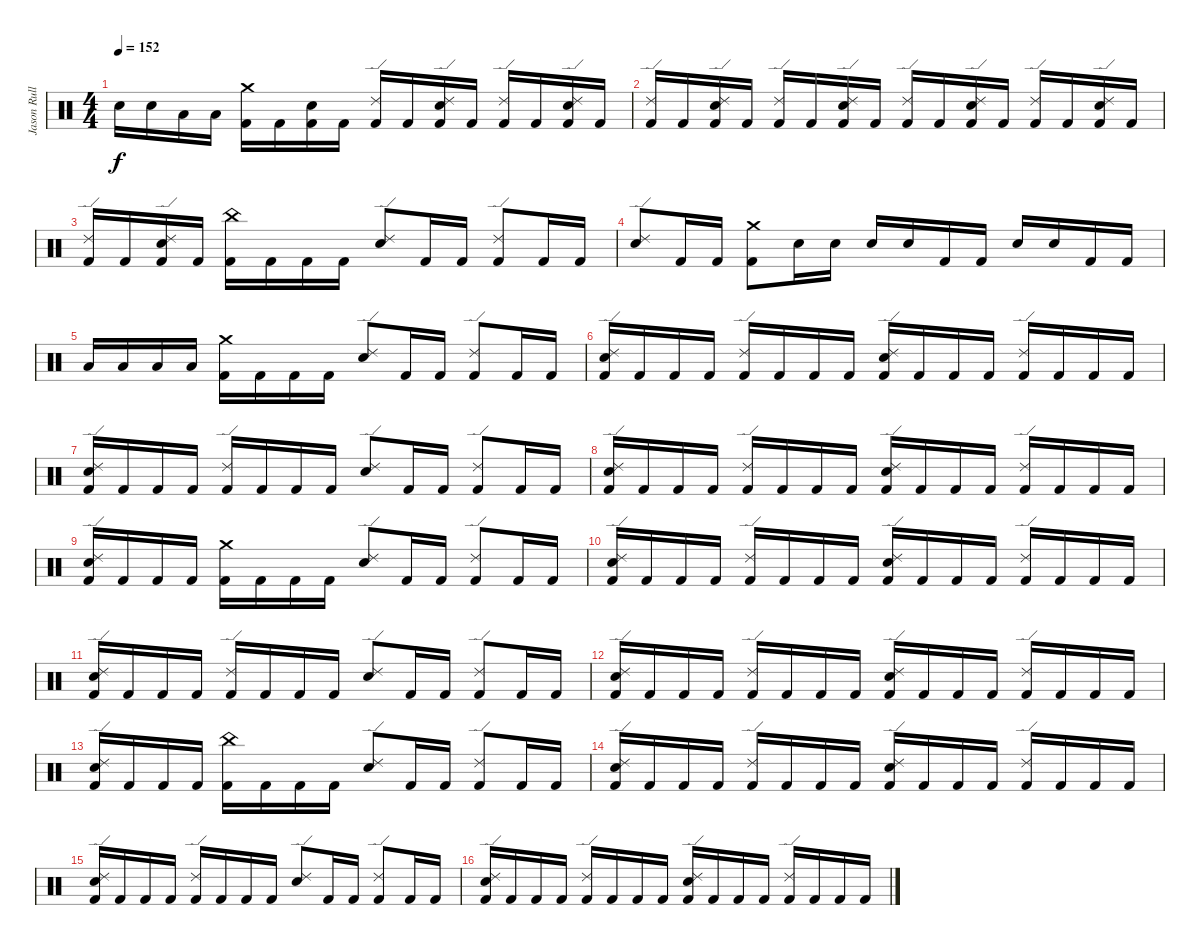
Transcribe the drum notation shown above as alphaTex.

\track ("Jason Rullo" "Jason Rull") {instrument percussion}
\staff {score}
\articulation defaults
\ts (4 4)
\tempo 152
\clef neutral
\ks c "Electric Snare (hit)".16{dy f} "Electric Snare (hit)".16 "Low Tom (hit)".16 "Low Tom (hit)".16
("Crash medium (hit)" "Kick (hit) 2").16 "Kick (hit) 2".16 ("Electric Snare (hit)" "Kick (hit) 2").16 "Kick (hit) 2".16 ("Ride (edge) 2" "Kick (hit) 2").16 "Kick (hit) 2".16 ("Electric Snare (hit)" "Ride (edge) 2" "Kick (hit) 2").16 "Kick (hit) 2".16 ("Ride (edge) 2" "Kick (hit) 2").16 "Kick (hit) 2".16 ("Electric Snare (hit)" "Ride (edge) 2" "Kick (hit) 2").16 "Kick (hit) 2".16 |
("Ride (edge) 2" "Kick (hit) 2").16 "Kick (hit) 2".16 ("Electric Snare (hit)" "Ride (edge) 2" "Kick (hit) 2").16 "Kick (hit) 2".16 ("Ride (edge) 2" "Kick (hit) 2").16 "Kick (hit) 2".16 ("Electric Snare (hit)" "Ride (edge) 2" "Kick (hit) 2").16 "Kick (hit) 2".16 ("Ride (edge) 2" "Kick (hit) 2").16 "Kick (hit) 2".16 ("Electric Snare (hit)" "Ride (edge) 2" "Kick (hit) 2").16 "Kick (hit) 2".16 ("Ride (edge) 2" "Kick (hit) 2").16 "Kick (hit) 2".16 ("Electric Snare (hit)" "Ride (edge) 2" "Kick (hit) 2").16 "Kick (hit) 2".16 |
("Ride (edge) 2" "Kick (hit) 2").16 "Kick (hit) 2".16 ("Electric Snare (hit)" "Ride (edge) 2" "Kick (hit) 2").16 "Kick (hit) 2".16 ("China (hit)" "Kick (hit) 2").16 "Kick (hit) 2".16 "Kick (hit) 2".16 "Kick (hit) 2".16 ("Ride (edge) 2" "Electric Snare (hit)").8 "Kick (hit) 2".16 "Kick (hit) 2".16 ("Ride (edge) 2" "Kick (hit) 2").8 "Kick (hit) 2".16 "Kick (hit) 2".16 |
("Ride (edge) 2" "Electric Snare (hit)").8 "Kick (hit) 2".16 "Kick (hit) 2".16 ("Crash medium (hit)" "Kick (hit) 2").8 "Electric Snare (hit)".16 "Electric Snare (hit)".16 "Electric Snare (hit)".16 "Electric Snare (hit)".16 "Kick (hit) 2".16 "Kick (hit) 2".16 "Electric Snare (hit)".16 "Electric Snare (hit)".16 "Kick (hit) 2".16 "Kick (hit) 2".16 |
"Low Tom (hit)".16 "Low Tom (hit)".16 "Low Floor Tom (hit)".16 "Low Floor Tom (hit)".16 ("Kick (hit) 2" "Crash medium (hit)").16 "Kick (hit) 2".16 "Kick (hit) 2".16 "Kick (hit) 2".16 ("Electric Snare (hit)" "Ride (edge) 2").8 "Kick (hit) 2".16 "Kick (hit) 2".16 ("Kick (hit) 2" "Ride (edge) 2").8 "Kick (hit) 2".16 "Kick (hit) 2".16 |
("Kick (hit) 2" "Electric Snare (hit)" "Ride (edge) 2").16 "Kick (hit) 2".16 "Kick (hit) 2".16 "Kick (hit) 2".16 ("Ride (edge) 2" "Kick (hit) 2").16 "Kick (hit) 2".16 "Kick (hit) 2".16 "Kick (hit) 2".16 ("Electric Snare (hit)" "Ride (edge) 2" "Kick (hit) 2").16 "Kick (hit) 2".16 "Kick (hit) 2".16 "Kick (hit) 2".16 ("Ride (edge) 2" "Kick (hit) 2").16 "Kick (hit) 2".16 "Kick (hit) 2".16 "Kick (hit) 2".16 |
("Electric Snare (hit)" "Ride (edge) 2" "Kick (hit) 2").16 "Kick (hit) 2".16 "Kick (hit) 2".16 "Kick (hit) 2".16 ("Ride (edge) 2" "Kick (hit) 2").16 "Kick (hit) 2".16 "Kick (hit) 2".16 "Kick (hit) 2".16 ("Electric Snare (hit)" "Ride (edge) 2").8 "Kick (hit) 2".16 "Kick (hit) 2".16 ("Kick (hit) 2" "Ride (edge) 2").8 "Kick (hit) 2".16 "Kick (hit) 2".16 |
("Kick (hit) 2" "Electric Snare (hit)" "Ride (edge) 2").16 "Kick (hit) 2".16 "Kick (hit) 2".16 "Kick (hit) 2".16 ("Ride (edge) 2" "Kick (hit) 2").16 "Kick (hit) 2".16 "Kick (hit) 2".16 "Kick (hit) 2".16 ("Electric Snare (hit)" "Ride (edge) 2" "Kick (hit) 2").16 "Kick (hit) 2".16 "Kick (hit) 2".16 "Kick (hit) 2".16 ("Ride (edge) 2" "Kick (hit) 2").16 "Kick (hit) 2".16 "Kick (hit) 2".16 "Kick (hit) 2".16 |
("Electric Snare (hit)" "Ride (edge) 2" "Kick (hit) 2").16 "Kick (hit) 2".16 "Kick (hit) 2".16 "Kick (hit) 2".16 ("Kick (hit) 2" "Crash medium (hit)").16 "Kick (hit) 2".16 "Kick (hit) 2".16 "Kick (hit) 2".16 ("Electric Snare (hit)" "Ride (edge) 2").8 "Kick (hit) 2".16 "Kick (hit) 2".16 ("Kick (hit) 2" "Ride (edge) 2").8 "Kick (hit) 2".16 "Kick (hit) 2".16 |
("Kick (hit) 2" "Electric Snare (hit)" "Ride (edge) 2").16 "Kick (hit) 2".16 "Kick (hit) 2".16 "Kick (hit) 2".16 ("Ride (edge) 2" "Kick (hit) 2").16 "Kick (hit) 2".16 "Kick (hit) 2".16 "Kick (hit) 2".16 ("Electric Snare (hit)" "Ride (edge) 2" "Kick (hit) 2").16 "Kick (hit) 2".16 "Kick (hit) 2".16 "Kick (hit) 2".16 ("Ride (edge) 2" "Kick (hit) 2").16 "Kick (hit) 2".16 "Kick (hit) 2".16 "Kick (hit) 2".16 |
("Electric Snare (hit)" "Ride (edge) 2" "Kick (hit) 2").16 "Kick (hit) 2".16 "Kick (hit) 2".16 "Kick (hit) 2".16 ("Ride (edge) 2" "Kick (hit) 2").16 "Kick (hit) 2".16 "Kick (hit) 2".16 "Kick (hit) 2".16 ("Electric Snare (hit)" "Ride (edge) 2").8 "Kick (hit) 2".16 "Kick (hit) 2".16 ("Kick (hit) 2" "Ride (edge) 2").8 "Kick (hit) 2".16 "Kick (hit) 2".16 |
("Kick (hit) 2" "Electric Snare (hit)" "Ride (edge) 2").16 "Kick (hit) 2".16 "Kick (hit) 2".16 "Kick (hit) 2".16 ("Ride (edge) 2" "Kick (hit) 2").16 "Kick (hit) 2".16 "Kick (hit) 2".16 "Kick (hit) 2".16 ("Electric Snare (hit)" "Ride (edge) 2" "Kick (hit) 2").16 "Kick (hit) 2".16 "Kick (hit) 2".16 "Kick (hit) 2".16 ("Ride (edge) 2" "Kick (hit) 2").16 "Kick (hit) 2".16 "Kick (hit) 2".16 "Kick (hit) 2".16 |
("Electric Snare (hit)" "Ride (edge) 2" "Kick (hit) 2").16 "Kick (hit) 2".16 "Kick (hit) 2".16 "Kick (hit) 2".16 ("China (hit)" "Kick (hit) 2").16 "Kick (hit) 2".16 "Kick (hit) 2".16 "Kick (hit) 2".16 ("Electric Snare (hit)" "Ride (edge) 2").8 "Kick (hit) 2".16 "Kick (hit) 2".16 ("Kick (hit) 2" "Ride (edge) 2").8 "Kick (hit) 2".16 "Kick (hit) 2".16 |
("Kick (hit) 2" "Electric Snare (hit)" "Ride (edge) 2").16 "Kick (hit) 2".16 "Kick (hit) 2".16 "Kick (hit) 2".16 ("Ride (edge) 2" "Kick (hit) 2").16 "Kick (hit) 2".16 "Kick (hit) 2".16 "Kick (hit) 2".16 ("Electric Snare (hit)" "Ride (edge) 2" "Kick (hit) 2").16 "Kick (hit) 2".16 "Kick (hit) 2".16 "Kick (hit) 2".16 ("Ride (edge) 2" "Kick (hit) 2").16 "Kick (hit) 2".16 "Kick (hit) 2".16 "Kick (hit) 2".16 |
("Electric Snare (hit)" "Ride (edge) 2" "Kick (hit) 2").16 "Kick (hit) 2".16 "Kick (hit) 2".16 "Kick (hit) 2".16 ("Ride (edge) 2" "Kick (hit) 2").16 "Kick (hit) 2".16 "Kick (hit) 2".16 "Kick (hit) 2".16 ("Electric Snare (hit)" "Ride (edge) 2").8 "Kick (hit) 2".16 "Kick (hit) 2".16 ("Kick (hit) 2" "Ride (edge) 2").8 "Kick (hit) 2".16 "Kick (hit) 2".16 |
("Kick (hit) 2" "Electric Snare (hit)" "Ride (edge) 2").16 "Kick (hit) 2".16 "Kick (hit) 2".16 "Kick (hit) 2".16 ("Ride (edge) 2" "Kick (hit) 2").16 "Kick (hit) 2".16 "Kick (hit) 2".16 "Kick (hit) 2".16 ("Electric Snare (hit)" "Ride (edge) 2" "Kick (hit) 2").16 "Kick (hit) 2".16 "Kick (hit) 2".16 "Kick (hit) 2".16 ("Ride (edge) 2" "Kick (hit) 2").16 "Kick (hit) 2".16 "Kick (hit) 2".16 "Kick (hit) 2".16
